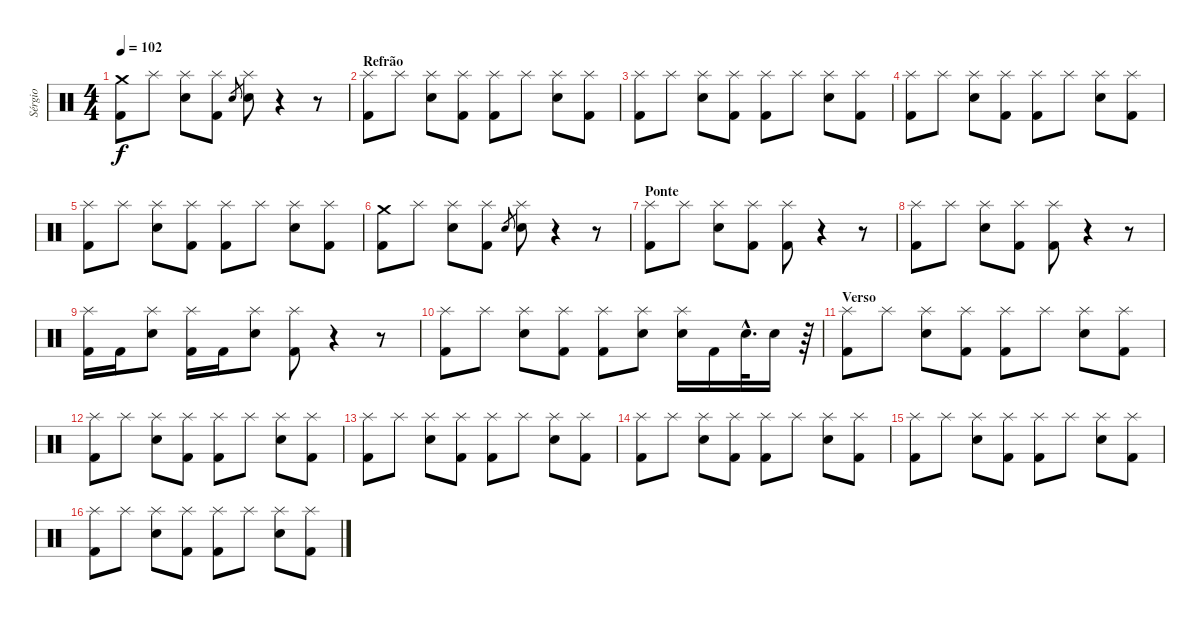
\track ("Sérgio" "Sérgio") {instrument percussion}
\staff {score}
\articulation defaults
\ts (4 4)
\tempo 102
\clef neutral
\ks c
("Crash medium (hit)" "Kick (hit) 2").8{dy f} "Splash (hit)".8 ("Splash (hit)" "Snare (hit) 2").8 ("Splash (hit)" "Kick (hit) 2").8 "Snare (hit) 2".8{gr} ("Splash (hit)" "Snare (hit) 2").8 r.4 r.8 |
\section ("" "Refrão")
("Splash (hit)" "Kick (hit) 2").8 "Splash (hit)".8 ("Splash (hit)" "Snare (hit) 2").8 ("Splash (hit)" "Kick (hit) 2").8 ("Splash (hit)" "Kick (hit) 2").8 "Splash (hit)".8 ("Splash (hit)" "Snare (hit) 2").8 ("Splash (hit)" "Kick (hit) 2").8 |
("Splash (hit)" "Kick (hit) 2").8 "Splash (hit)".8 ("Splash (hit)" "Snare (hit) 2").8 ("Splash (hit)" "Kick (hit) 2").8 ("Splash (hit)" "Kick (hit) 2").8 "Splash (hit)".8 ("Splash (hit)" "Snare (hit) 2").8 ("Splash (hit)" "Kick (hit) 2").8 |
("Splash (hit)" "Kick (hit) 2").8 "Splash (hit)".8 ("Splash (hit)" "Snare (hit) 2").8 ("Splash (hit)" "Kick (hit) 2").8 ("Splash (hit)" "Kick (hit) 2").8 "Splash (hit)".8 ("Splash (hit)" "Snare (hit) 2").8 ("Splash (hit)" "Kick (hit) 2").8 |
("Splash (hit)" "Kick (hit) 2").8 "Splash (hit)".8 ("Splash (hit)" "Snare (hit) 2").8 ("Splash (hit)" "Kick (hit) 2").8 ("Splash (hit)" "Kick (hit) 2").8 "Splash (hit)".8 ("Splash (hit)" "Snare (hit) 2").8 ("Splash (hit)" "Kick (hit) 2").8 |
("Crash medium (hit)" "Kick (hit) 2").8 "Splash (hit)".8 ("Splash (hit)" "Snare (hit) 2").8 ("Splash (hit)" "Kick (hit) 2").8 "Snare (hit) 2".8{gr} ("Splash (hit)" "Snare (hit) 2").8 r.4 r.8 |
\section ("" "Ponte")
("Splash (hit)" "Kick (hit) 2").8 "Splash (hit)".8 ("Splash (hit)" "Snare (hit) 2").8 ("Splash (hit)" "Kick (hit) 2").8 ("Splash (hit)" "Kick (hit) 2").8 r.4 r.8 |
("Splash (hit)" "Kick (hit) 2").8 "Splash (hit)".8 ("Splash (hit)" "Snare (hit) 2").8 ("Splash (hit)" "Kick (hit) 2").8 ("Splash (hit)" "Kick (hit) 2").8 r.4 r.8 |
("Splash (hit)" "Kick (hit) 2").16 "Kick (hit) 2".16 ("Splash (hit)" "Snare (hit) 2").8 ("Splash (hit)" "Kick (hit) 2").16 "Kick (hit) 2".16 ("Splash (hit)" "Snare (hit) 2").8 ("Splash (hit)" "Kick (hit) 2").8 r.4 r.8 |
("Splash (hit)" "Kick (hit) 2").8 "Splash (hit)".8 ("Splash (hit)" "Snare (hit) 2").8 ("Splash (hit)" "Kick (hit) 2").8 ("Splash (hit)" "Kick (hit) 2").8 ("Splash (hit)" "Snare (hit) 2").8 ("Splash (hit)" "Snare (hit) 2").16 "Kick (hit) 2".16 "Snare (hit) 2"{hac}.32{d} "Snare (hit) 2".16 r.64 |
\section ("" "Verso")
("Splash (hit)" "Kick (hit) 2").8 "Splash (hit)".8 ("Splash (hit)" "Snare (hit) 2").8 ("Splash (hit)" "Kick (hit) 2").8 ("Splash (hit)" "Kick (hit) 2").8 "Splash (hit)".8 ("Splash (hit)" "Snare (hit) 2").8 ("Splash (hit)" "Kick (hit) 2").8 |
("Splash (hit)" "Kick (hit) 2").8 "Splash (hit)".8 ("Splash (hit)" "Snare (hit) 2").8 ("Splash (hit)" "Kick (hit) 2").8 ("Splash (hit)" "Kick (hit) 2").8 "Splash (hit)".8 ("Splash (hit)" "Snare (hit) 2").8 ("Splash (hit)" "Kick (hit) 2").8 |
("Splash (hit)" "Kick (hit) 2").8 "Splash (hit)".8 ("Splash (hit)" "Snare (hit) 2").8 ("Splash (hit)" "Kick (hit) 2").8 ("Splash (hit)" "Kick (hit) 2").8 "Splash (hit)".8 ("Splash (hit)" "Snare (hit) 2").8 ("Splash (hit)" "Kick (hit) 2").8 |
("Splash (hit)" "Kick (hit) 2").8 "Splash (hit)".8 ("Splash (hit)" "Snare (hit) 2").8 ("Splash (hit)" "Kick (hit) 2").8 ("Splash (hit)" "Kick (hit) 2").8 "Splash (hit)".8 ("Splash (hit)" "Snare (hit) 2").8 ("Splash (hit)" "Kick (hit) 2").8 |
("Splash (hit)" "Kick (hit) 2").8 "Splash (hit)".8 ("Splash (hit)" "Snare (hit) 2").8 ("Splash (hit)" "Kick (hit) 2").8 ("Splash (hit)" "Kick (hit) 2").8 "Splash (hit)".8 ("Splash (hit)" "Snare (hit) 2").8 ("Splash (hit)" "Kick (hit) 2").8 |
("Splash (hit)" "Kick (hit) 2").8 "Splash (hit)".8 ("Splash (hit)" "Snare (hit) 2").8 ("Splash (hit)" "Kick (hit) 2").8 ("Splash (hit)" "Kick (hit) 2").8 "Splash (hit)".8 ("Splash (hit)" "Snare (hit) 2").8 ("Splash (hit)" "Kick (hit) 2").8
